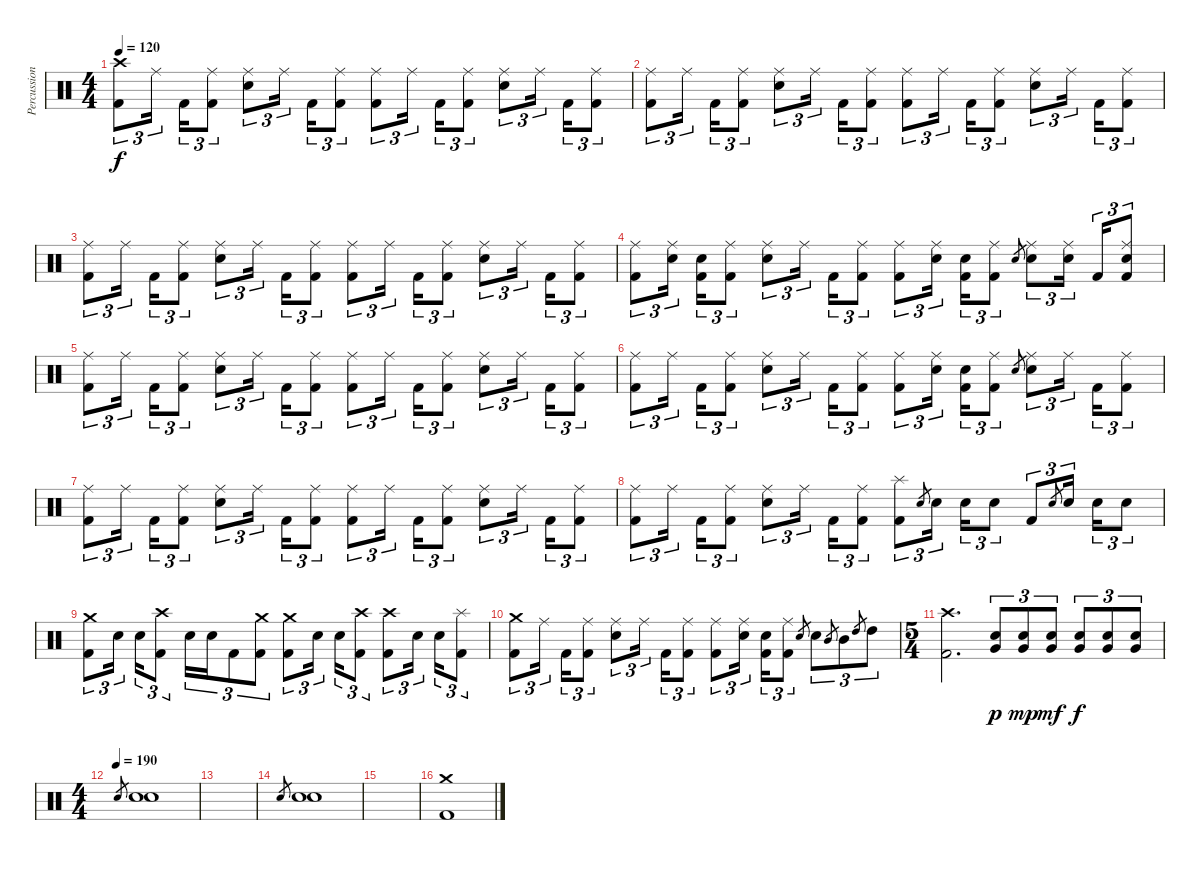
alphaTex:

\track ("Percussions" "Percussion") {instrument percussion}
\staff {score}
\articulation defaults
\ts (4 4)
\tempo 120
\clef neutral
\ks c
("Crash high (hit)" "Kick (hit) 2").8{tu (3 2) dy f} "Ride (middle)".16{tu (3 2)} "Kick (hit) 2".16{tu (3 2)} ("Ride (middle)" "Kick (hit) 2").8{tu (3 2)} ("Ride (middle)" "Electric Snare (hit)").8{tu (3 2)} "Ride (middle)".16{tu (3 2)} "Kick (hit) 2".16{tu (3 2)} ("Ride (middle)" "Kick (hit) 2").8{tu (3 2)} ("Ride (middle)" "Kick (hit) 2").8{tu (3 2)} "Ride (middle)".16{tu (3 2)} "Kick (hit) 2".16{tu (3 2)} ("Ride (middle)" "Kick (hit) 2").8{tu (3 2)} ("Ride (middle)" "Electric Snare (hit)").8{tu (3 2)} "Ride (middle)".16{tu (3 2)} "Kick (hit) 2".16{tu (3 2)} ("Ride (middle)" "Kick (hit) 2").8{tu (3 2)} |
("Ride (middle)" "Kick (hit) 2").8{tu (3 2)} "Ride (middle)".16{tu (3 2)} "Kick (hit) 2".16{tu (3 2)} ("Ride (middle)" "Kick (hit) 2").8{tu (3 2)} ("Ride (middle)" "Electric Snare (hit)").8{tu (3 2)} "Ride (middle)".16{tu (3 2)} "Kick (hit) 2".16{tu (3 2)} ("Ride (middle)" "Kick (hit) 2").8{tu (3 2)} ("Ride (middle)" "Kick (hit) 2").8{tu (3 2)} "Ride (middle)".16{tu (3 2)} "Kick (hit) 2".16{tu (3 2)} ("Ride (middle)" "Kick (hit) 2").8{tu (3 2)} ("Ride (middle)" "Electric Snare (hit)").8{tu (3 2)} "Ride (middle)".16{tu (3 2)} "Kick (hit) 2".16{tu (3 2)} ("Ride (middle)" "Kick (hit) 2").8{tu (3 2)} |
("Ride (middle)" "Kick (hit) 2").8{tu (3 2)} "Ride (middle)".16{tu (3 2)} "Kick (hit) 2".16{tu (3 2)} ("Ride (middle)" "Kick (hit) 2").8{tu (3 2)} ("Ride (middle)" "Electric Snare (hit)").8{tu (3 2)} "Ride (middle)".16{tu (3 2)} "Kick (hit) 2".16{tu (3 2)} ("Ride (middle)" "Kick (hit) 2").8{tu (3 2)} ("Ride (middle)" "Kick (hit) 2").8{tu (3 2)} "Ride (middle)".16{tu (3 2)} "Kick (hit) 2".16{tu (3 2)} ("Ride (middle)" "Kick (hit) 2").8{tu (3 2)} ("Ride (middle)" "Electric Snare (hit)").8{tu (3 2)} "Ride (middle)".16{tu (3 2)} "Kick (hit) 2".16{tu (3 2)} ("Ride (middle)" "Kick (hit) 2").8{tu (3 2)} |
("Ride (middle)" "Kick (hit) 2").8{tu (3 2)} ("Ride (middle)" "Electric Snare (hit)").16{tu (3 2)} ("Electric Snare (hit)" "Kick (hit) 2").16{tu (3 2)} ("Ride (middle)" "Kick (hit) 2").8{tu (3 2)} ("Ride (middle)" "Electric Snare (hit)").8{tu (3 2)} "Ride (middle)".16{tu (3 2)} "Kick (hit) 2".16{tu (3 2)} ("Ride (middle)" "Kick (hit) 2").8{tu (3 2)} ("Ride (middle)" "Kick (hit) 2").8{tu (3 2)} ("Ride (middle)" "Electric Snare (hit)").16{tu (3 2)} ("Electric Snare (hit)" "Kick (hit) 2").16{tu (3 2)} ("Ride (middle)" "Kick (hit) 2").8{tu (3 2)} "Electric Snare (hit)".8{gr} ("Ride (middle)" "Electric Snare (hit)").8{tu (3 2)} ("Ride (middle)" "Electric Snare (hit)").16{tu (3 2)} "Kick (hit) 2".16{tu (3 2)} ("Ride (middle)" "Electric Snare (hit)" "Kick (hit) 2").8{tu (3 2)} |
("Ride (middle)" "Kick (hit) 2").8{tu (3 2)} "Ride (middle)".16{tu (3 2)} "Kick (hit) 2".16{tu (3 2)} ("Ride (middle)" "Kick (hit) 2").8{tu (3 2)} ("Ride (middle)" "Electric Snare (hit)").8{tu (3 2)} "Ride (middle)".16{tu (3 2)} "Kick (hit) 2".16{tu (3 2)} ("Ride (middle)" "Kick (hit) 2").8{tu (3 2)} ("Ride (middle)" "Kick (hit) 2").8{tu (3 2)} "Ride (middle)".16{tu (3 2)} "Kick (hit) 2".16{tu (3 2)} ("Ride (middle)" "Kick (hit) 2").8{tu (3 2)} ("Ride (middle)" "Electric Snare (hit)").8{tu (3 2)} "Ride (middle)".16{tu (3 2)} "Kick (hit) 2".16{tu (3 2)} ("Ride (middle)" "Kick (hit) 2").8{tu (3 2)} |
("Ride (middle)" "Kick (hit) 2").8{tu (3 2)} "Ride (middle)".16{tu (3 2)} "Kick (hit) 2".16{tu (3 2)} ("Ride (middle)" "Kick (hit) 2").8{tu (3 2)} ("Ride (middle)" "Electric Snare (hit)").8{tu (3 2)} "Ride (middle)".16{tu (3 2)} "Kick (hit) 2".16{tu (3 2)} ("Ride (middle)" "Kick (hit) 2").8{tu (3 2)} ("Ride (middle)" "Kick (hit) 2").8{tu (3 2)} ("Ride (middle)" "Electric Snare (hit)").16{tu (3 2)} ("Electric Snare (hit)" "Kick (hit) 2").16{tu (3 2)} ("Ride (middle)" "Kick (hit) 2").8{tu (3 2)} "Electric Snare (hit)".8{gr} ("Ride (middle)" "Electric Snare (hit)").8{tu (3 2)} "Ride (middle)".16{tu (3 2)} "Kick (hit) 2".16{tu (3 2)} ("Ride (middle)" "Kick (hit) 2").8{tu (3 2)} |
("Ride (middle)" "Kick (hit) 2").8{tu (3 2)} "Ride (middle)".16{tu (3 2)} "Kick (hit) 2".16{tu (3 2)} ("Ride (middle)" "Kick (hit) 2").8{tu (3 2)} ("Ride (middle)" "Electric Snare (hit)").8{tu (3 2)} "Ride (middle)".16{tu (3 2)} "Kick (hit) 2".16{tu (3 2)} ("Ride (middle)" "Kick (hit) 2").8{tu (3 2)} ("Ride (middle)" "Kick (hit) 2").8{tu (3 2)} "Ride (middle)".16{tu (3 2)} "Kick (hit) 2".16{tu (3 2)} ("Ride (middle)" "Kick (hit) 2").8{tu (3 2)} ("Ride (middle)" "Electric Snare (hit)").8{tu (3 2)} "Ride (middle)".16{tu (3 2)} "Kick (hit) 2".16{tu (3 2)} ("Ride (middle)" "Kick (hit) 2").8{tu (3 2)} |
("Ride (middle)" "Kick (hit) 2").8{tu (3 2)} "Ride (middle)".16{tu (3 2)} "Kick (hit) 2".16{tu (3 2)} ("Ride (middle)" "Kick (hit) 2").8{tu (3 2)} ("Ride (middle)" "Electric Snare (hit)").8{tu (3 2)} "Ride (middle)".16{tu (3 2)} "Kick (hit) 2".16{tu (3 2)} ("Ride (middle)" "Kick (hit) 2").8{tu (3 2)} ("Splash (hit)" "Kick (hit) 2").8{tu (3 2)} "Electric Snare (hit)".8{gr} "Electric Snare (hit)".16{tu (3 2)} "Electric Snare (hit)".16{tu (3 2)} "Electric Snare (hit)".8{tu (3 2)} "Kick (hit) 2".8{tu (3 2)} "Electric Snare (hit)".8{gr} "Electric Snare (hit)".16{tu (3 2)} "Electric Snare (hit)".16{tu (3 2)} "Electric Snare (hit)".8{tu (3 2)} |
("Crash medium (hit)" "Kick (hit) 2").8{tu (3 2)} "Electric Snare (hit)".16{tu (3 2)} "Electric Snare (hit)".16{tu (3 2)} ("Crash high (hit)" "Kick (hit) 2").8{tu (3 2)} "Electric Snare (hit)".16{tu (3 2)} "Electric Snare (hit)".16{tu (3 2)} "Kick (hit) 2".8{tu (3 2)} ("Crash medium (hit)" "Kick (hit) 2").8{tu (3 2)} ("Crash medium (hit)" "Kick (hit) 2").8{tu (3 2)} "Electric Snare (hit)".16{tu (3 2)} "Electric Snare (hit)".16{tu (3 2)} ("Crash high (hit)" "Kick (hit) 2").8{tu (3 2)} ("Crash high (hit)" "Kick (hit) 2").8{tu (3 2)} "Electric Snare (hit)".16{tu (3 2)} "Electric Snare (hit)".16{tu (3 2)} ("Splash (hit)" "Kick (hit) 2").8{tu (3 2)} |
("Crash medium (hit)" "Kick (hit) 2").8{tu (3 2)} "Ride (middle)".16{tu (3 2)} "Kick (hit) 2".16{tu (3 2)} ("Ride (middle)" "Kick (hit) 2").8{tu (3 2)} ("Ride (middle)" "Electric Snare (hit)").8{tu (3 2)} "Ride (middle)".16{tu (3 2)} "Kick (hit) 2".16{tu (3 2)} ("Ride (middle)" "Kick (hit) 2").8{tu (3 2)} ("Ride (middle)" "Kick (hit) 2").8{tu (3 2)} ("Ride (middle)" "Electric Snare (hit)").16{tu (3 2)} ("Electric Snare (hit)" "Kick (hit) 2").16{tu (3 2)} ("Ride (middle)" "Kick (hit) 2").8{tu (3 2)} "Electric Snare (hit)".8{gr} "Electric Snare (hit)".8{tu (3 2)} "Mid Tom (hit)".8{gr} "Mid Tom (hit)".8{tu (3 2)} "High Tom (hit)".8{gr} "High Tom (hit)".8{tu (3 2)} |
\ts (5 4)
("Crash high (hit)" "Kick (hit) 2").2{d} ("Electric Snare (hit)" "Very Low Tom (hit)").8{tu (3 2) dy p} ("Electric Snare (hit)" "Very Low Tom (hit)").8{tu (3 2) dy mp} ("Electric Snare (hit)" "Very Low Tom (hit)").8{tu (3 2) dy mf} ("Electric Snare (hit)" "Very Low Tom (hit)").8{tu (3 2) dy f} ("Electric Snare (hit)" "Very Low Tom (hit)").8{tu (3 2)} ("Electric Snare (hit)" "Very Low Tom (hit)").8{tu (3 2)} |
\ts (4 4)
\tempo 180
\tempo (190)
"Electric Snare (hit)".8{gr} ("Electric Snare (hit)" "Electric Snare (hit)").1 |
|
"Electric Snare (hit)".8{gr} ("Electric Snare (hit)" "Electric Snare (hit)").1 |
|
("Crash medium (hit)" "Kick (hit) 2").1
